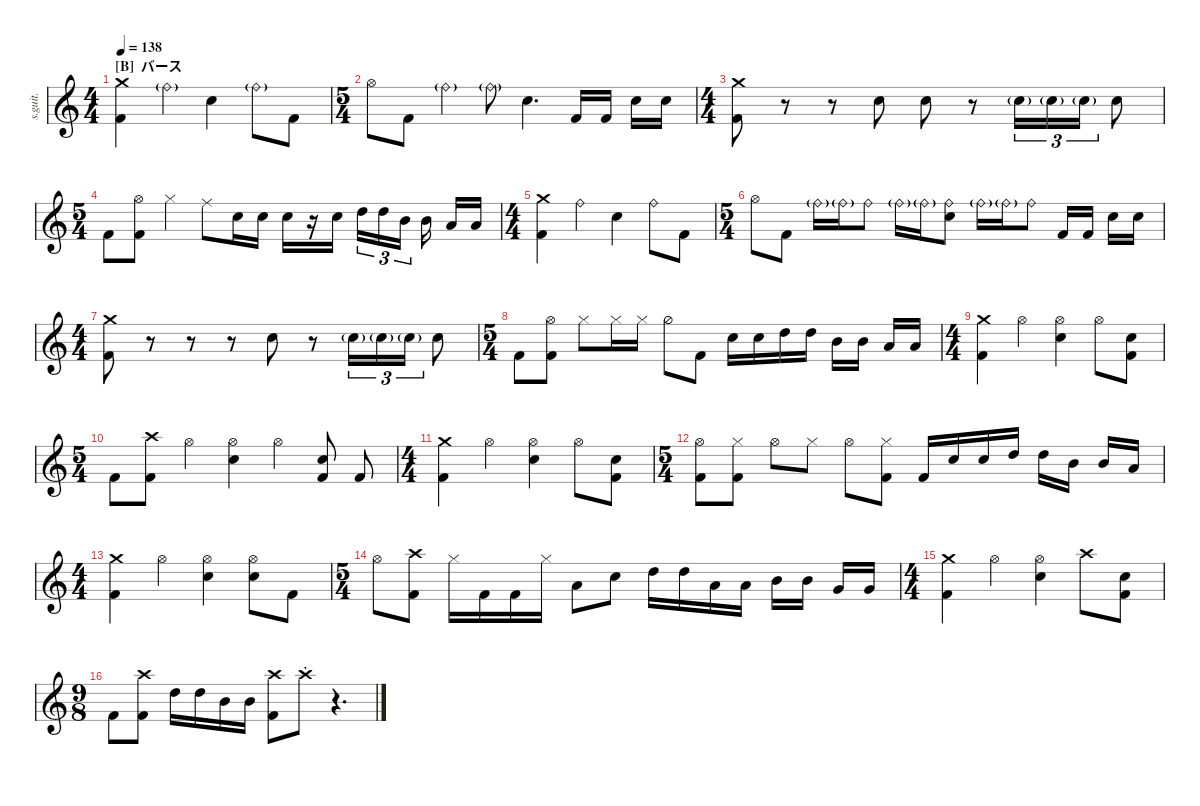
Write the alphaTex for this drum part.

\defaultSystemsLayout 4
\hideDynamics
\bracketExtendMode nobrackets
\track ("Nathan Camarena" "s.guit.") {instrument percussion}
\staff {score}
\articulation defaults
\ts (4 4)
\section ("B" " バース")
\tempo 138
\clef g2
\ks c
("Crash medium (hit)" "Kick (hit) 2").4{lyrics (0 "") lyrics (1 "") lyrics (2 "") lyrics (3 "") lyrics (4 "") dy f} "Ride (bell)"{g}.4{lyrics (0 "") lyrics (1 "") lyrics (2 "") lyrics (3 "") lyrics (4 "")} "Snare (hit) 2".4{lyrics (0 "") lyrics (1 "") lyrics (2 "") lyrics (3 "") lyrics (4 "")} "Ride (bell)"{g}.8{lyrics (0 "") lyrics (1 "") lyrics (2 "") lyrics (3 "") lyrics (4 "")} "Kick (hit) 2".8{lyrics (0 "") lyrics (1 "") lyrics (2 "") lyrics (3 "") lyrics (4 "")} |
\ts (5 4)
\beaming (8 2 2 2 2)
"Hi-Hat (open)".8{lyrics (0 "") lyrics (1 "") lyrics (2 "") lyrics (3 "") lyrics (4 "")} "Kick (hit) 2".8{lyrics (0 "") lyrics (1 "") lyrics (2 "") lyrics (3 "") lyrics (4 "")} "Ride (bell)"{g}.4{lyrics (0 "") lyrics (1 "") lyrics (2 "") lyrics (3 "") lyrics (4 "")} "Ride (bell)"{g}.8{lyrics (0 "") lyrics (1 "") lyrics (2 "") lyrics (3 "") lyrics (4 "")} "Snare (hit) 2".4{d lyrics (0 "") lyrics (1 "") lyrics (2 "") lyrics (3 "") lyrics (4 "")} "Kick (hit) 2".16{lyrics (0 "") lyrics (1 "") lyrics (2 "") lyrics (3 "") lyrics (4 "")} "Kick (hit) 2".16{lyrics (0 "") lyrics (1 "") lyrics (2 "") lyrics (3 "") lyrics (4 "")} "Snare (hit) 2".16{lyrics (0 "") lyrics (1 "") lyrics (2 "") lyrics (3 "") lyrics (4 "")} "Snare (hit) 2".16{lyrics (0 "") lyrics (1 "") lyrics (2 "") lyrics (3 "") lyrics (4 "")} |
\ts (4 4)
\beaming (8 2 2 2 2)
("Kick (hit) 2" "Crash medium (hit)").8{lyrics (0 "") lyrics (1 "") lyrics (2 "") lyrics (3 "") lyrics (4 "")} r.8 r.8 "Snare (hit) 2".8{lyrics (0 "") lyrics (1 "") lyrics (2 "") lyrics (3 "") lyrics (4 "")} "Snare (hit) 2".8{lyrics (0 "") lyrics (1 "") lyrics (2 "") lyrics (3 "") lyrics (4 "")} r.8 "Snare (hit) 2"{g}.16{tu (3 2) lyrics (0 "") lyrics (1 "") lyrics (2 "") lyrics (3 "") lyrics (4 "")} "Snare (hit) 2"{g}.16{tu (3 2) lyrics (0 "") lyrics (1 "") lyrics (2 "") lyrics (3 "") lyrics (4 "")} "Snare (hit) 2"{g}.16{tu (3 2) lyrics (0 "") lyrics (1 "") lyrics (2 "") lyrics (3 "") lyrics (4 "")} "Snare (hit) 2".8{lyrics (0 "") lyrics (1 "") lyrics (2 "") lyrics (3 "") lyrics (4 "")} |
\ts (5 4)
\beaming (8 2 2 2 2)
"Kick (hit) 2".8{lyrics (0 "") lyrics (1 "") lyrics (2 "") lyrics (3 "") lyrics (4 "")} ("Kick (hit) 2" "Hi-Hat (open)").8{lyrics (0 "") lyrics (1 "") lyrics (2 "") lyrics (3 "") lyrics (4 "")} "Hi-Hat (closed)".4{lyrics (0 "") lyrics (1 "") lyrics (2 "") lyrics (3 "") lyrics (4 "")} "Ride (middle)".8{lyrics (0 "") lyrics (1 "") lyrics (2 "") lyrics (3 "") lyrics (4 "")} "Snare (hit) 2".16{lyrics (0 "") lyrics (1 "") lyrics (2 "") lyrics (3 "") lyrics (4 "")} "Snare (hit) 2".16{lyrics (0 "") lyrics (1 "") lyrics (2 "") lyrics (3 "") lyrics (4 "")} "Snare (hit) 2".16{lyrics (0 "") lyrics (1 "") lyrics (2 "") lyrics (3 "") lyrics (4 "")} r.16 "Snare (hit) 2".16{lyrics (0 "") lyrics (1 "") lyrics (2 "") lyrics (3 "") lyrics (4 "")} "High Tom (hit)".16{tu (3 2) lyrics (0 "") lyrics (1 "") lyrics (2 "") lyrics (3 "") lyrics (4 "") dy fff} "High Tom (hit)".16{tu (3 2) lyrics (0 "") lyrics (1 "") lyrics (2 "") lyrics (3 "") lyrics (4 "")} "Mid Tom (hit)".16{tu (3 2) lyrics (0 "") lyrics (1 "") lyrics (2 "") lyrics (3 "") lyrics (4 "")} "Mid Tom (hit)".16{lyrics (0 "") lyrics (1 "") lyrics (2 "") lyrics (3 "") lyrics (4 "")} "Low Tom (hit)".16{lyrics (0 "") lyrics (1 "") lyrics (2 "") lyrics (3 "") lyrics (4 "")} "Low Tom (hit)".16{lyrics (0 "") lyrics (1 "") lyrics (2 "") lyrics (3 "") lyrics (4 "")} |
\ts (4 4)
\beaming (8 2 2 2 2)
("Crash medium (hit)" "Kick (hit) 2").4{lyrics (0 "") lyrics (1 "") lyrics (2 "") lyrics (3 "") lyrics (4 "") dy f} "Ride (bell)".4{lyrics (0 "") lyrics (1 "") lyrics (2 "") lyrics (3 "") lyrics (4 "")} "Snare (hit) 2".4{lyrics (0 "") lyrics (1 "") lyrics (2 "") lyrics (3 "") lyrics (4 "")} "Ride (bell)".8{lyrics (0 "") lyrics (1 "") lyrics (2 "") lyrics (3 "") lyrics (4 "")} "Kick (hit) 2".8{lyrics (0 "") lyrics (1 "") lyrics (2 "") lyrics (3 "") lyrics (4 "")} |
\ts (5 4)
\beaming (8 2 2 2 2)
"Hi-Hat (open)".8{lyrics (0 "") lyrics (1 "") lyrics (2 "") lyrics (3 "") lyrics (4 "")} "Kick (hit) 2".8{lyrics (0 "") lyrics (1 "") lyrics (2 "") lyrics (3 "") lyrics (4 "")} "Ride (bell)"{g}.16{lyrics (0 "") lyrics (1 "") lyrics (2 "") lyrics (3 "") lyrics (4 "") dy mp} "Ride (bell)"{g}.16{lyrics (0 "") lyrics (1 "") lyrics (2 "") lyrics (3 "") lyrics (4 "")} "Ride (bell)".8{lyrics (0 "") lyrics (1 "") lyrics (2 "") lyrics (3 "") lyrics (4 "") dy mf} "Ride (bell)"{g}.16{lyrics (0 "") lyrics (1 "") lyrics (2 "") lyrics (3 "") lyrics (4 "") dy mp} "Ride (bell)"{g}.16{lyrics (0 "") lyrics (1 "") lyrics (2 "") lyrics (3 "") lyrics (4 "")} ("Snare (hit) 2" "Ride (bell)").8{lyrics (0 "") lyrics (1 "") lyrics (2 "") lyrics (3 "") lyrics (4 "") dy mf} "Ride (bell)"{g}.16{lyrics (0 "") lyrics (1 "") lyrics (2 "") lyrics (3 "") lyrics (4 "") dy mp} "Ride (bell)"{g}.16{lyrics (0 "") lyrics (1 "") lyrics (2 "") lyrics (3 "") lyrics (4 "")} "Ride (bell)".8{lyrics (0 "") lyrics (1 "") lyrics (2 "") lyrics (3 "") lyrics (4 "") dy mf} "Kick (hit) 2".16{lyrics (0 "") lyrics (1 "") lyrics (2 "") lyrics (3 "") lyrics (4 "") dy f} "Kick (hit) 2".16{lyrics (0 "") lyrics (1 "") lyrics (2 "") lyrics (3 "") lyrics (4 "")} "Snare (hit) 2".16{lyrics (0 "") lyrics (1 "") lyrics (2 "") lyrics (3 "") lyrics (4 "")} "Snare (hit) 2".16{lyrics (0 "") lyrics (1 "") lyrics (2 "") lyrics (3 "") lyrics (4 "")} |
\ts (4 4)
\beaming (8 2 2 2 2)
("Kick (hit) 2" "Crash medium (hit)").8{lyrics (0 "") lyrics (1 "") lyrics (2 "") lyrics (3 "") lyrics (4 "")} r.8 r.8 r.8 "Snare (hit) 2".8{lyrics (0 "") lyrics (1 "") lyrics (2 "") lyrics (3 "") lyrics (4 "")} r.8 "Snare (hit) 2"{g}.16{tu (3 2) lyrics (0 "") lyrics (1 "") lyrics (2 "") lyrics (3 "") lyrics (4 "")} "Snare (hit) 2"{g}.16{tu (3 2) lyrics (0 "") lyrics (1 "") lyrics (2 "") lyrics (3 "") lyrics (4 "")} "Snare (hit) 2"{g}.16{tu (3 2) lyrics (0 "") lyrics (1 "") lyrics (2 "") lyrics (3 "") lyrics (4 "")} "Snare (hit) 2".8{lyrics (0 "") lyrics (1 "") lyrics (2 "") lyrics (3 "") lyrics (4 "")} |
\ts (5 4)
\beaming (8 2 2 2 2)
"Kick (hit) 2".8{lyrics (0 "") lyrics (1 "") lyrics (2 "") lyrics (3 "") lyrics (4 "")} ("Kick (hit) 2" "Hi-Hat (open)").8{lyrics (0 "") lyrics (1 "") lyrics (2 "") lyrics (3 "") lyrics (4 "")} "Hi-Hat (closed)".8{lyrics (0 "") lyrics (1 "") lyrics (2 "") lyrics (3 "") lyrics (4 "")} "Hi-Hat (closed)".16{lyrics (0 "") lyrics (1 "") lyrics (2 "") lyrics (3 "") lyrics (4 "")} "Hi-Hat (closed)".16{lyrics (0 "") lyrics (1 "") lyrics (2 "") lyrics (3 "") lyrics (4 "")} "Hi-Hat (half)".8{lyrics (0 "") lyrics (1 "") lyrics (2 "") lyrics (3 "") lyrics (4 "")} "Kick (hit) 2".8{lyrics (0 "") lyrics (1 "") lyrics (2 "") lyrics (3 "") lyrics (4 "")} "Snare (hit) 2".16{lyrics (0 "") lyrics (1 "") lyrics (2 "") lyrics (3 "") lyrics (4 "")} "Snare (hit) 2".16{lyrics (0 "") lyrics (1 "") lyrics (2 "") lyrics (3 "") lyrics (4 "")} "High Tom (hit)".16{lyrics (0 "") lyrics (1 "") lyrics (2 "") lyrics (3 "") lyrics (4 "") dy fff} "High Tom (hit)".16{lyrics (0 "") lyrics (1 "") lyrics (2 "") lyrics (3 "") lyrics (4 "")} "Mid Tom (hit)".16{lyrics (0 "") lyrics (1 "") lyrics (2 "") lyrics (3 "") lyrics (4 "")} "Mid Tom (hit)".16{lyrics (0 "") lyrics (1 "") lyrics (2 "") lyrics (3 "") lyrics (4 "")} "Low Tom (hit)".16{lyrics (0 "") lyrics (1 "") lyrics (2 "") lyrics (3 "") lyrics (4 "")} "Low Tom (hit)".16{lyrics (0 "") lyrics (1 "") lyrics (2 "") lyrics (3 "") lyrics (4 "")} |
\ts (4 4)
\beaming (8 2 2 2 2)
("Crash medium (hit)" "Kick (hit) 2").4{lyrics (0 "") lyrics (1 "") lyrics (2 "") lyrics (3 "") lyrics (4 "") dy f} "Hi-Hat (open)".4{lyrics (0 "") lyrics (1 "") lyrics (2 "") lyrics (3 "") lyrics (4 "")} ("Snare (hit) 2" "Hi-Hat (open)").4{lyrics (0 "") lyrics (1 "") lyrics (2 "") lyrics (3 "") lyrics (4 "")} "Hi-Hat (open)".8{lyrics (0 "") lyrics (1 "") lyrics (2 "") lyrics (3 "") lyrics (4 "")} ("Snare (hit) 2" "Kick (hit) 2").8{lyrics (0 "") lyrics (1 "") lyrics (2 "") lyrics (3 "") lyrics (4 "")} |
\ts (5 4)
\beaming (8 2 2 2 2)
"Kick (hit) 2".8{lyrics (0 "") lyrics (1 "") lyrics (2 "") lyrics (3 "") lyrics (4 "")} ("Kick (hit) 2" "Crash high (hit)").8{lyrics (0 "") lyrics (1 "") lyrics (2 "") lyrics (3 "") lyrics (4 "")} "Hi-Hat (open)".4{lyrics (0 "") lyrics (1 "") lyrics (2 "") lyrics (3 "") lyrics (4 "")} ("Snare (hit) 2" "Hi-Hat (open)").4{lyrics (0 "") lyrics (1 "") lyrics (2 "") lyrics (3 "") lyrics (4 "")} "Hi-Hat (open)".4{lyrics (0 "") lyrics (1 "") lyrics (2 "") lyrics (3 "") lyrics (4 "")} ("Snare (hit) 2" "Kick (hit) 2").8{lyrics (0 "") lyrics (1 "") lyrics (2 "") lyrics (3 "") lyrics (4 "")} "Kick (hit) 2".8{lyrics (0 "") lyrics (1 "") lyrics (2 "") lyrics (3 "") lyrics (4 "")} |
\ts (4 4)
\beaming (8 2 2 2 2)
("Crash medium (hit)" "Kick (hit) 2").4{lyrics (0 "") lyrics (1 "") lyrics (2 "") lyrics (3 "") lyrics (4 "")} "Hi-Hat (open)".4{lyrics (0 "") lyrics (1 "") lyrics (2 "") lyrics (3 "") lyrics (4 "")} ("Snare (hit) 2" "Hi-Hat (open)").4{lyrics (0 "") lyrics (1 "") lyrics (2 "") lyrics (3 "") lyrics (4 "")} "Hi-Hat (open)".8{lyrics (0 "") lyrics (1 "") lyrics (2 "") lyrics (3 "") lyrics (4 "")} ("Snare (hit) 2" "Kick (hit) 2").8{lyrics (0 "") lyrics (1 "") lyrics (2 "") lyrics (3 "") lyrics (4 "")} |
\ts (5 4)
\beaming (8 2 2 2 2)
("Kick (hit) 2" "Hi-Hat (open)").8{lyrics (0 "") lyrics (1 "") lyrics (2 "") lyrics (3 "") lyrics (4 "")} ("Kick (hit) 2" "Hi-Hat (closed)").8{lyrics (0 "") lyrics (1 "") lyrics (2 "") lyrics (3 "") lyrics (4 "")} "Hi-Hat (open)".8{lyrics (0 "") lyrics (1 "") lyrics (2 "") lyrics (3 "") lyrics (4 "")} "Hi-Hat (closed)".8{lyrics (0 "") lyrics (1 "") lyrics (2 "") lyrics (3 "") lyrics (4 "")} "Hi-Hat (open)".8{lyrics (0 "") lyrics (1 "") lyrics (2 "") lyrics (3 "") lyrics (4 "")} ("Hi-Hat (closed)" "Kick (hit) 2").8{lyrics (0 "") lyrics (1 "") lyrics (2 "") lyrics (3 "") lyrics (4 "")} "Kick (hit) 2".16{lyrics (0 "") lyrics (1 "") lyrics (2 "") lyrics (3 "") lyrics (4 "")} "Snare (hit) 2".16{lyrics (0 "") lyrics (1 "") lyrics (2 "") lyrics (3 "") lyrics (4 "")} "Snare (hit) 2".16{lyrics (0 "") lyrics (1 "") lyrics (2 "") lyrics (3 "") lyrics (4 "")} "High Tom (hit)".16{lyrics (0 "") lyrics (1 "") lyrics (2 "") lyrics (3 "") lyrics (4 "") dy fff} "High Tom (hit)".16{lyrics (0 "") lyrics (1 "") lyrics (2 "") lyrics (3 "") lyrics (4 "")} "Mid Tom (hit)".16{lyrics (0 "") lyrics (1 "") lyrics (2 "") lyrics (3 "") lyrics (4 "")} "Mid Tom (hit)".16{lyrics (0 "") lyrics (1 "") lyrics (2 "") lyrics (3 "") lyrics (4 "")} "Low Tom (hit)".16{lyrics (0 "") lyrics (1 "") lyrics (2 "") lyrics (3 "") lyrics (4 "")} |
\ts (4 4)
\beaming (8 2 2 2 2)
("Kick (hit) 2" "Crash medium (hit)").4{lyrics (0 "") lyrics (1 "") lyrics (2 "") lyrics (3 "") lyrics (4 "") dy f} "Hi-Hat (open)".4{lyrics (0 "") lyrics (1 "") lyrics (2 "") lyrics (3 "") lyrics (4 "")} ("Snare (hit) 2" "Hi-Hat (open)").4{lyrics (0 "") lyrics (1 "") lyrics (2 "") lyrics (3 "") lyrics (4 "")} ("Snare (hit) 2" "Hi-Hat (open)").8{lyrics (0 "") lyrics (1 "") lyrics (2 "") lyrics (3 "") lyrics (4 "")} "Kick (hit) 2".8{lyrics (0 "") lyrics (1 "") lyrics (2 "") lyrics (3 "") lyrics (4 "")} |
\ts (5 4)
\beaming (8 2 2 2 2)
"Hi-Hat (open)".8{lyrics (0 "") lyrics (1 "") lyrics (2 "") lyrics (3 "") lyrics (4 "")} ("Kick (hit) 2" "Crash high (hit)").8{lyrics (0 "") lyrics (1 "") lyrics (2 "") lyrics (3 "") lyrics (4 "")} "Hi-Hat (closed)".16{lyrics (0 "") lyrics (1 "") lyrics (2 "") lyrics (3 "") lyrics (4 "")} "Kick (hit) 2".16{lyrics (0 "") lyrics (1 "") lyrics (2 "") lyrics (3 "") lyrics (4 "")} "Kick (hit) 2".16{lyrics (0 "") lyrics (1 "") lyrics (2 "") lyrics (3 "") lyrics (4 "")} "Hi-Hat (closed)".16{lyrics (0 "") lyrics (1 "") lyrics (2 "") lyrics (3 "") lyrics (4 "")} "Low Tom (hit)".8{lyrics (0 "") lyrics (1 "") lyrics (2 "") lyrics (3 "") lyrics (4 "")} "Snare (hit) 2".8{lyrics (0 "") lyrics (1 "") lyrics (2 "") lyrics (3 "") lyrics (4 "")} "High Tom (hit)".16{lyrics (0 "") lyrics (1 "") lyrics (2 "") lyrics (3 "") lyrics (4 "") dy fff} "High Tom (hit)".16{lyrics (0 "") lyrics (1 "") lyrics (2 "") lyrics (3 "") lyrics (4 "")} "Low Tom (hit)".16{lyrics (0 "") lyrics (1 "") lyrics (2 "") lyrics (3 "") lyrics (4 "")} "Low Tom (hit)".16{lyrics (0 "") lyrics (1 "") lyrics (2 "") lyrics (3 "") lyrics (4 "")} "Mid Tom (hit)".16{lyrics (0 "") lyrics (1 "") lyrics (2 "") lyrics (3 "") lyrics (4 "")} "Mid Tom (hit)".16{lyrics (0 "") lyrics (1 "") lyrics (2 "") lyrics (3 "") lyrics (4 "")} "Very Low Tom (hit)".16{lyrics (0 "") lyrics (1 "") lyrics (2 "") lyrics (3 "") lyrics (4 "")} "Very Low Tom (hit)".16{lyrics (0 "") lyrics (1 "") lyrics (2 "") lyrics (3 "") lyrics (4 "")} |
\ts (4 4)
\beaming (8 2 2 2 2)
("Kick (hit) 2" "Crash medium (hit)").4{lyrics (0 "") lyrics (1 "") lyrics (2 "") lyrics (3 "") lyrics (4 "") dy f} "Hi-Hat (open)".4{lyrics (0 "") lyrics (1 "") lyrics (2 "") lyrics (3 "") lyrics (4 "")} ("Snare (hit) 2" "Hi-Hat (open)").4{lyrics (0 "") lyrics (1 "") lyrics (2 "") lyrics (3 "") lyrics (4 "")} "Crash high (hit)".8{lyrics (0 "") lyrics (1 "") lyrics (2 "") lyrics (3 "") lyrics (4 "")} ("Snare (hit) 2" "Kick (hit) 2").8{lyrics (0 "") lyrics (1 "") lyrics (2 "") lyrics (3 "") lyrics (4 "")} |
\ts (9 8)
\beaming (8 2 2 2 2)
"Kick (hit) 2".8{lyrics (0 "") lyrics (1 "") lyrics (2 "") lyrics (3 "") lyrics (4 "")} ("Crash high (hit)" "Kick (hit) 2").8{lyrics (0 "") lyrics (1 "") lyrics (2 "") lyrics (3 "") lyrics (4 "")} "High Tom (hit)".16{lyrics (0 "") lyrics (1 "") lyrics (2 "") lyrics (3 "") lyrics (4 "") dy fff} "High Tom (hit)".16{lyrics (0 "") lyrics (1 "") lyrics (2 "") lyrics (3 "") lyrics (4 "")} "Mid Tom (hit)".16{lyrics (0 "") lyrics (1 "") lyrics (2 "") lyrics (3 "") lyrics (4 "")} "Mid Tom (hit)".16{lyrics (0 "") lyrics (1 "") lyrics (2 "") lyrics (3 "") lyrics (4 "")} ("Crash high (hit)" "Kick (hit) 2").8{lyrics (0 "") lyrics (1 "") lyrics (2 "") lyrics (3 "") lyrics (4 "") dy f} "Crash high (hit)"{st}.8{lyrics (0 "") lyrics (1 "") lyrics (2 "") lyrics (3 "") lyrics (4 "")} r.4{d}
